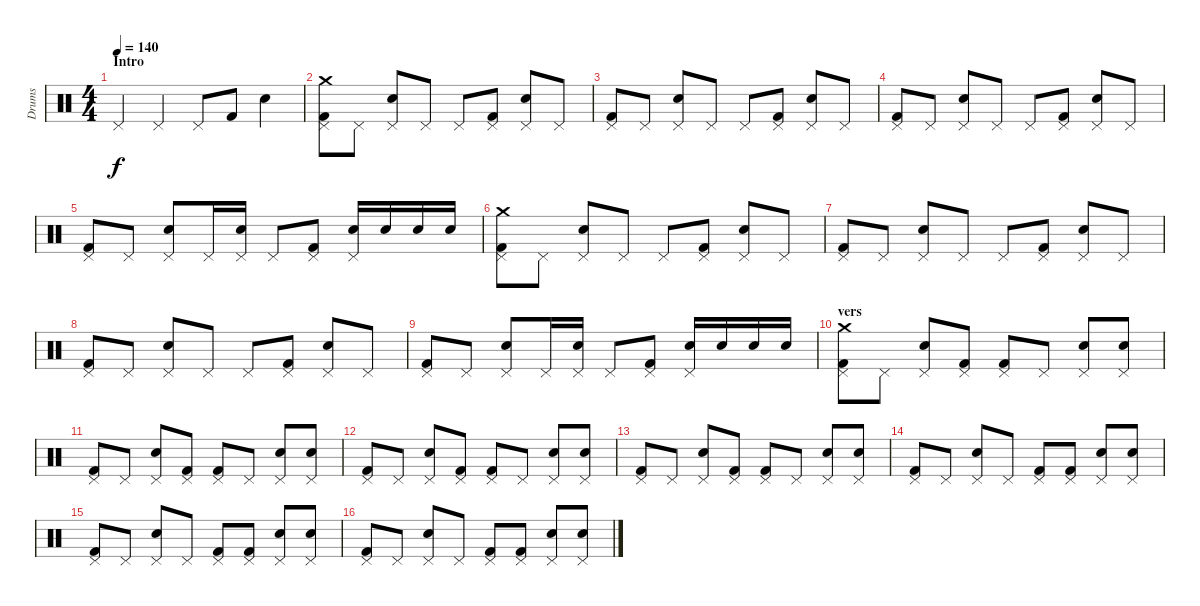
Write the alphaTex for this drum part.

\track ("Drums" "Drums") {instrument percussion}
\staff {score}
\articulation defaults
\ts (4 4)
\section ("" "Intro")
\tempo 140
\clef neutral
\ks c "Pedal Hi-Hat (hit)".4{dy f} "Pedal Hi-Hat (hit)".4 "Pedal Hi-Hat (hit)".8 "Kick (hit) 2".8 "Snare (hit) 2".4
|
("Crash medium (hit)" "Pedal Hi-Hat (hit)" "Kick (hit) 2").8 "Pedal Hi-Hat (hit)".8 ("Pedal Hi-Hat (hit)" "Snare (hit) 2").8 "Pedal Hi-Hat (hit)".8 "Pedal Hi-Hat (hit)".8 ("Pedal Hi-Hat (hit)" "Kick (hit) 2").8 ("Pedal Hi-Hat (hit)" "Snare (hit) 2").8 "Pedal Hi-Hat (hit)".8 |
("Pedal Hi-Hat (hit)" "Kick (hit) 2").8 "Pedal Hi-Hat (hit)".8 ("Pedal Hi-Hat (hit)" "Snare (hit) 2").8 "Pedal Hi-Hat (hit)".8 "Pedal Hi-Hat (hit)".8 ("Pedal Hi-Hat (hit)" "Kick (hit) 2").8 ("Pedal Hi-Hat (hit)" "Snare (hit) 2").8 "Pedal Hi-Hat (hit)".8 |
("Pedal Hi-Hat (hit)" "Kick (hit) 2").8 "Pedal Hi-Hat (hit)".8 ("Pedal Hi-Hat (hit)" "Snare (hit) 2").8 "Pedal Hi-Hat (hit)".8 "Pedal Hi-Hat (hit)".8 ("Pedal Hi-Hat (hit)" "Kick (hit) 2").8 ("Pedal Hi-Hat (hit)" "Snare (hit) 2").8 "Pedal Hi-Hat (hit)".8 |
("Pedal Hi-Hat (hit)" "Kick (hit) 2").8 "Pedal Hi-Hat (hit)".8 ("Pedal Hi-Hat (hit)" "Snare (hit) 2").8 "Pedal Hi-Hat (hit)".16 ("Pedal Hi-Hat (hit)" "Snare (hit) 2").16 "Pedal Hi-Hat (hit)".8 ("Pedal Hi-Hat (hit)" "Kick (hit) 2").8 ("Pedal Hi-Hat (hit)" "Snare (hit) 2").16 "Snare (hit) 2".16 "Snare (hit) 2".16 "Snare (hit) 2".16 |
("Crash medium (hit)" "Pedal Hi-Hat (hit)" "Kick (hit) 2").8 "Pedal Hi-Hat (hit)".8 ("Pedal Hi-Hat (hit)" "Snare (hit) 2").8 "Pedal Hi-Hat (hit)".8 "Pedal Hi-Hat (hit)".8 ("Pedal Hi-Hat (hit)" "Kick (hit) 2").8 ("Pedal Hi-Hat (hit)" "Snare (hit) 2").8 "Pedal Hi-Hat (hit)".8 |
("Pedal Hi-Hat (hit)" "Kick (hit) 2").8 "Pedal Hi-Hat (hit)".8 ("Pedal Hi-Hat (hit)" "Snare (hit) 2").8 "Pedal Hi-Hat (hit)".8 "Pedal Hi-Hat (hit)".8 ("Pedal Hi-Hat (hit)" "Kick (hit) 2").8 ("Pedal Hi-Hat (hit)" "Snare (hit) 2").8 "Pedal Hi-Hat (hit)".8 |
("Pedal Hi-Hat (hit)" "Kick (hit) 2").8 "Pedal Hi-Hat (hit)".8 ("Pedal Hi-Hat (hit)" "Snare (hit) 2").8 "Pedal Hi-Hat (hit)".8 "Pedal Hi-Hat (hit)".8 ("Pedal Hi-Hat (hit)" "Kick (hit) 2").8 ("Pedal Hi-Hat (hit)" "Snare (hit) 2").8 "Pedal Hi-Hat (hit)".8 |
("Pedal Hi-Hat (hit)" "Kick (hit) 2").8 "Pedal Hi-Hat (hit)".8 ("Pedal Hi-Hat (hit)" "Snare (hit) 2").8 "Pedal Hi-Hat (hit)".16 ("Pedal Hi-Hat (hit)" "Snare (hit) 2").16 "Pedal Hi-Hat (hit)".8 ("Pedal Hi-Hat (hit)" "Kick (hit) 2").8 ("Pedal Hi-Hat (hit)" "Snare (hit) 2").16 "Snare (hit) 2".16 "Snare (hit) 2".16 "Snare (hit) 2".16 |
\section ("" "vers")
("Crash medium (hit)" "Pedal Hi-Hat (hit)" "Kick (hit) 2").8 "Pedal Hi-Hat (hit)".8 ("Pedal Hi-Hat (hit)" "Snare (hit) 2").8 ("Pedal Hi-Hat (hit)" "Kick (hit) 2").8 ("Pedal Hi-Hat (hit)" "Kick (hit) 2").8 "Pedal Hi-Hat (hit)".8 ("Pedal Hi-Hat (hit)" "Snare (hit) 2").8 ("Pedal Hi-Hat (hit)" "Snare (hit) 2").8 |
("Pedal Hi-Hat (hit)" "Kick (hit) 2").8 "Pedal Hi-Hat (hit)".8 ("Pedal Hi-Hat (hit)" "Snare (hit) 2").8 ("Pedal Hi-Hat (hit)" "Kick (hit) 2").8 ("Pedal Hi-Hat (hit)" "Kick (hit) 2").8 "Pedal Hi-Hat (hit)".8 ("Pedal Hi-Hat (hit)" "Snare (hit) 2").8 ("Pedal Hi-Hat (hit)" "Snare (hit) 2").8 |
("Pedal Hi-Hat (hit)" "Kick (hit) 2").8 "Pedal Hi-Hat (hit)".8 ("Pedal Hi-Hat (hit)" "Snare (hit) 2").8 ("Pedal Hi-Hat (hit)" "Kick (hit) 2").8 ("Pedal Hi-Hat (hit)" "Kick (hit) 2").8 "Pedal Hi-Hat (hit)".8 ("Pedal Hi-Hat (hit)" "Snare (hit) 2").8 ("Pedal Hi-Hat (hit)" "Snare (hit) 2").8 |
("Pedal Hi-Hat (hit)" "Kick (hit) 2").8 "Pedal Hi-Hat (hit)".8 ("Pedal Hi-Hat (hit)" "Snare (hit) 2").8 ("Pedal Hi-Hat (hit)" "Kick (hit) 2").8 ("Pedal Hi-Hat (hit)" "Kick (hit) 2").8 "Pedal Hi-Hat (hit)".8 ("Pedal Hi-Hat (hit)" "Snare (hit) 2").8 ("Pedal Hi-Hat (hit)" "Snare (hit) 2").8 |
("Pedal Hi-Hat (hit)" "Kick (hit) 2").8 "Pedal Hi-Hat (hit)".8 ("Pedal Hi-Hat (hit)" "Snare (hit) 2").8 "Pedal Hi-Hat (hit)".8 ("Pedal Hi-Hat (hit)" "Kick (hit) 2").8 ("Pedal Hi-Hat (hit)" "Kick (hit) 2").8 ("Pedal Hi-Hat (hit)" "Snare (hit) 2").8 ("Pedal Hi-Hat (hit)" "Snare (hit) 2").8 |
("Pedal Hi-Hat (hit)" "Kick (hit) 2").8 "Pedal Hi-Hat (hit)".8 ("Pedal Hi-Hat (hit)" "Snare (hit) 2").8 "Pedal Hi-Hat (hit)".8 ("Pedal Hi-Hat (hit)" "Kick (hit) 2").8 ("Pedal Hi-Hat (hit)" "Kick (hit) 2").8 ("Pedal Hi-Hat (hit)" "Snare (hit) 2").8 ("Pedal Hi-Hat (hit)" "Snare (hit) 2").8 |
("Pedal Hi-Hat (hit)" "Kick (hit) 2").8 "Pedal Hi-Hat (hit)".8 ("Pedal Hi-Hat (hit)" "Snare (hit) 2").8 "Pedal Hi-Hat (hit)".8 ("Pedal Hi-Hat (hit)" "Kick (hit) 2").8 ("Pedal Hi-Hat (hit)" "Kick (hit) 2").8 ("Pedal Hi-Hat (hit)" "Snare (hit) 2").8 ("Pedal Hi-Hat (hit)" "Snare (hit) 2").8
